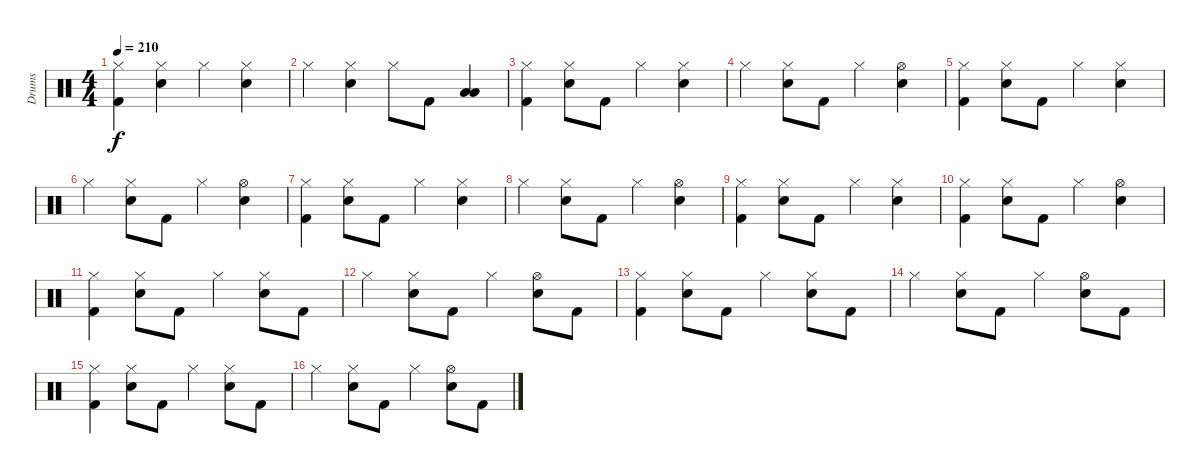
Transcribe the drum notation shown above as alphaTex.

\track ("Drums" "Drums") {instrument percussion}
\staff {score}
\articulation defaults
\ts (4 4)
\tempo 210
\clef neutral
\ks c
("Hi-Hat (closed)" "Kick (hit) 2").4{dy f} ("Hi-Hat (closed)" "Snare (hit) 2").4 "Hi-Hat (closed)".4 ("Hi-Hat (closed)" "Snare (hit) 2").4 |
"Hi-Hat (closed)".4 ("Hi-Hat (closed)" "Snare (hit) 2").4 "Hi-Hat (closed)".8 "Kick (hit) 2".8 ("Low Tom (hit)" "Low Floor Tom (hit)").4 |
("Hi-Hat (closed)" "Kick (hit) 2").4 ("Hi-Hat (closed)" "Snare (hit) 2").8 "Kick (hit) 2".8 "Hi-Hat (closed)".4 ("Hi-Hat (closed)" "Snare (hit) 2").4 |
"Hi-Hat (closed)".4 ("Hi-Hat (closed)" "Snare (hit) 2").8 "Kick (hit) 2".8 "Hi-Hat (closed)".4 ("Hi-Hat (open)" "Snare (hit) 2").4 |
("Hi-Hat (closed)" "Kick (hit) 2").4 ("Hi-Hat (closed)" "Snare (hit) 2").8 "Kick (hit) 2".8 "Hi-Hat (closed)".4 ("Hi-Hat (closed)" "Snare (hit) 2").4 |
"Hi-Hat (closed)".4 ("Hi-Hat (closed)" "Snare (hit) 2").8 "Kick (hit) 2".8 "Hi-Hat (closed)".4 ("Hi-Hat (open)" "Snare (hit) 2").4 |
("Hi-Hat (closed)" "Kick (hit) 2").4 ("Hi-Hat (closed)" "Snare (hit) 2").8 "Kick (hit) 2".8 "Hi-Hat (closed)".4 ("Hi-Hat (closed)" "Snare (hit) 2").4 |
"Hi-Hat (closed)".4 ("Hi-Hat (closed)" "Snare (hit) 2").8 "Kick (hit) 2".8 "Hi-Hat (closed)".4 ("Hi-Hat (open)" "Snare (hit) 2").4 |
("Hi-Hat (closed)" "Kick (hit) 2").4 ("Hi-Hat (closed)" "Snare (hit) 2").8 "Kick (hit) 2".8 "Hi-Hat (closed)".4 ("Hi-Hat (closed)" "Snare (hit) 2").4 |
("Hi-Hat (closed)" "Kick (hit) 2").4 ("Hi-Hat (closed)" "Snare (hit) 2").8 "Kick (hit) 2".8 "Hi-Hat (closed)".4 ("Hi-Hat (open)" "Snare (hit) 2").4 |
("Hi-Hat (closed)" "Kick (hit) 2").4 ("Hi-Hat (closed)" "Snare (hit) 2").8 "Kick (hit) 2".8 "Hi-Hat (closed)".4 ("Hi-Hat (closed)" "Snare (hit) 2").8 "Kick (hit) 2".8 |
"Hi-Hat (closed)".4 ("Hi-Hat (closed)" "Snare (hit) 2").8 "Kick (hit) 2".8 "Hi-Hat (closed)".4 ("Hi-Hat (open)" "Snare (hit) 2").8 "Kick (hit) 2".8 |
("Hi-Hat (closed)" "Kick (hit) 2").4 ("Hi-Hat (closed)" "Snare (hit) 2").8 "Kick (hit) 2".8 "Hi-Hat (closed)".4 ("Hi-Hat (closed)" "Snare (hit) 2").8 "Kick (hit) 2".8 |
"Hi-Hat (closed)".4 ("Hi-Hat (closed)" "Snare (hit) 2").8 "Kick (hit) 2".8 "Hi-Hat (closed)".4 ("Hi-Hat (open)" "Snare (hit) 2").8 "Kick (hit) 2".8 |
("Hi-Hat (closed)" "Kick (hit) 2").4 ("Hi-Hat (closed)" "Snare (hit) 2").8 "Kick (hit) 2".8 "Hi-Hat (closed)".4 ("Hi-Hat (closed)" "Snare (hit) 2").8 "Kick (hit) 2".8 |
"Hi-Hat (closed)".4 ("Hi-Hat (closed)" "Snare (hit) 2").8 "Kick (hit) 2".8 "Hi-Hat (closed)".4 ("Hi-Hat (open)" "Snare (hit) 2").8 "Kick (hit) 2".8
